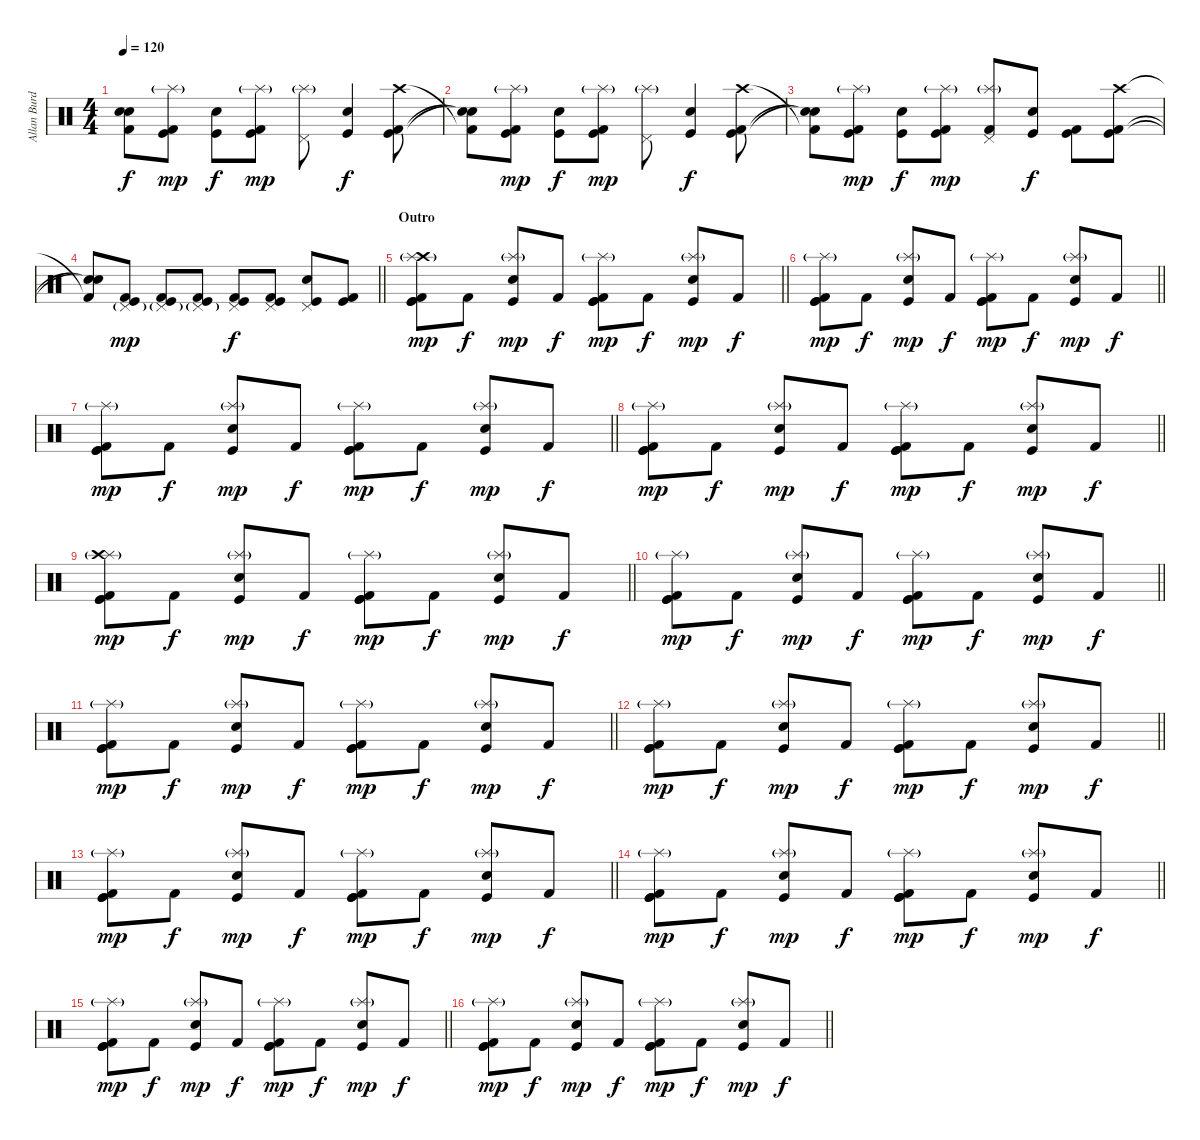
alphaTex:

\track ("Allan Burdeos(Drums)" "Allan Burd") {instrument percussion}
\staff {score}
\articulation defaults
\ts (4 4)
\tempo 120
\clef neutral
\ks c
("Kick (hit) 2"{t} "Snare (hit)"{t} "Snare (hit)"{t}).8{dy f} ("Kick (hit) 2" "Kick (hit)" "Splash (hit)"{g}).8{dy mp} ("Kick (hit)" "Electric Snare (hit)").8{dy f} ("Kick (hit) 2" "Kick (hit)" "Splash (hit)"{g}).8{dy mp} ("Pedal Hi-Hat (hit)" "Splash (hit)"{g}).8 ("Kick (hit)" "Electric Snare (hit)").4{dy f} ("Crash high (hit)" "Kick (hit) 2" "Kick (hit)").8 |
("Kick (hit) 2"{t} "Snare (hit)"{t} "Snare (hit)"{t}).8 ("Kick (hit) 2" "Kick (hit)" "Splash (hit)"{g}).8{dy mp} ("Kick (hit)" "Electric Snare (hit)").8{dy f} ("Kick (hit) 2" "Kick (hit)" "Splash (hit)"{g}).8{dy mp} ("Pedal Hi-Hat (hit)" "Splash (hit)"{g}).8 ("Kick (hit)" "Electric Snare (hit)").4{dy f} ("Crash high (hit)" "Kick (hit) 2" "Kick (hit)").8 |
("Kick (hit) 2"{t} "Snare (hit)"{t} "Snare (hit)"{t}).8 ("Kick (hit) 2" "Kick (hit)" "Splash (hit)"{g}).8{dy mp} ("Kick (hit)" "Electric Snare (hit)").8{dy f} ("Kick (hit) 2" "Kick (hit)" "Splash (hit)"{g}).8{dy mp} ("Pedal Hi-Hat (hit)" "Kick (hit) 2" "Splash (hit)"{g}).8 ("Kick (hit)" "Electric Snare (hit)").8{dy f} ("Kick (hit) 2" "Kick (hit)").8 ("Crash high (hit)" "Kick (hit) 2" "Kick (hit)").8 |
\barLineRight lightlight
("Kick (hit) 2"{t} "Snare (hit)"{t} "Snare (hit)"{t}).8 ("Kick (hit) 2" "Kick (hit)" "Pedal Hi-Hat (hit)"{g}).8{dy mp} ("Kick (hit) 2" "Kick (hit)" "Pedal Hi-Hat (hit)"{g}).8 ("Kick (hit) 2" "Kick (hit)" "Pedal Hi-Hat (hit)"{g}).8 ("Kick (hit) 2" "Kick (hit)" "Pedal Hi-Hat (hit)").8{dy f} ("Kick (hit) 2" "Kick (hit)" "Pedal Hi-Hat (hit)").8 ("Electric Snare (hit)" "Kick (hit)" "Pedal Hi-Hat (hit)").8 ("Kick (hit) 2" "Kick (hit)").8 |
\section ("" "Outro")
\barLineRight lightlight
("Kick (hit)" "Kick (hit)" "Kick (hit) 2" "Crash high (hit)" "Splash (hit)"{g}).8{dy mp} "Kick (hit) 2".8{dy f} ("Kick (hit)" "Electric Snare (hit)" "Splash (hit)"{g}).8{dy mp} "Kick (hit) 2".8{dy f} ("Kick (hit)" "Kick (hit)" "Kick (hit) 2" "Splash (hit)"{g}).8{dy mp} "Kick (hit) 2".8{dy f} ("Kick (hit)" "Electric Snare (hit)" "Splash (hit)"{g}).8{dy mp} "Kick (hit) 2".8{dy f} |
\barLineRight lightlight
("Kick (hit)" "Kick (hit)" "Kick (hit) 2" "Splash (hit)"{g}).8{dy mp} "Kick (hit) 2".8{dy f} ("Kick (hit)" "Electric Snare (hit)" "Splash (hit)"{g}).8{dy mp} "Kick (hit) 2".8{dy f} ("Kick (hit)" "Kick (hit)" "Kick (hit) 2" "Splash (hit)"{g}).8{dy mp} "Kick (hit) 2".8{dy f} ("Kick (hit)" "Electric Snare (hit)" "Splash (hit)"{g}).8{dy mp} "Kick (hit) 2".8{dy f} |
\barLineRight lightlight
("Kick (hit)" "Kick (hit)" "Kick (hit) 2" "Splash (hit)"{g}).8{dy mp} "Kick (hit) 2".8{dy f} ("Kick (hit)" "Electric Snare (hit)" "Splash (hit)"{g}).8{dy mp} "Kick (hit) 2".8{dy f} ("Kick (hit)" "Kick (hit)" "Kick (hit) 2" "Splash (hit)"{g}).8{dy mp} "Kick (hit) 2".8{dy f} ("Kick (hit)" "Electric Snare (hit)" "Splash (hit)"{g}).8{dy mp} "Kick (hit) 2".8{dy f} |
\barLineRight lightlight
("Kick (hit)" "Kick (hit)" "Kick (hit) 2" "Splash (hit)"{g}).8{dy mp} "Kick (hit) 2".8{dy f} ("Kick (hit)" "Electric Snare (hit)" "Splash (hit)"{g}).8{dy mp} "Kick (hit) 2".8{dy f} ("Kick (hit)" "Kick (hit)" "Kick (hit) 2" "Splash (hit)"{g}).8{dy mp} "Kick (hit) 2".8{dy f} ("Kick (hit)" "Electric Snare (hit)" "Splash (hit)"{g}).8{dy mp} "Kick (hit) 2".8{dy f} |
\barLineRight lightlight
("Kick (hit)" "Kick (hit)" "Kick (hit) 2" "Splash (hit)"{g} "Crash high (hit)"{g}).8{dy mp} "Kick (hit) 2".8{dy f} ("Kick (hit)" "Electric Snare (hit)" "Splash (hit)"{g}).8{dy mp} "Kick (hit) 2".8{dy f} ("Kick (hit)" "Kick (hit)" "Kick (hit) 2" "Splash (hit)"{g}).8{dy mp} "Kick (hit) 2".8{dy f} ("Kick (hit)" "Electric Snare (hit)" "Splash (hit)"{g}).8{dy mp} "Kick (hit) 2".8{dy f} |
\barLineRight lightlight
("Kick (hit)" "Kick (hit)" "Kick (hit) 2" "Splash (hit)"{g}).8{dy mp} "Kick (hit) 2".8{dy f} ("Kick (hit)" "Electric Snare (hit)" "Splash (hit)"{g}).8{dy mp} "Kick (hit) 2".8{dy f} ("Kick (hit)" "Kick (hit)" "Kick (hit) 2" "Splash (hit)"{g}).8{dy mp} "Kick (hit) 2".8{dy f} ("Kick (hit)" "Electric Snare (hit)" "Splash (hit)"{g}).8{dy mp} "Kick (hit) 2".8{dy f} |
\barLineRight lightlight
("Kick (hit)" "Kick (hit)" "Kick (hit) 2" "Splash (hit)"{g}).8{dy mp} "Kick (hit) 2".8{dy f} ("Kick (hit)" "Electric Snare (hit)" "Splash (hit)"{g}).8{dy mp} "Kick (hit) 2".8{dy f} ("Kick (hit)" "Kick (hit)" "Kick (hit) 2" "Splash (hit)"{g}).8{dy mp} "Kick (hit) 2".8{dy f} ("Kick (hit)" "Electric Snare (hit)" "Splash (hit)"{g}).8{dy mp} "Kick (hit) 2".8{dy f} |
\barLineRight lightlight
("Kick (hit)" "Kick (hit)" "Kick (hit) 2" "Splash (hit)"{g}).8{dy mp} "Kick (hit) 2".8{dy f} ("Kick (hit)" "Electric Snare (hit)" "Splash (hit)"{g}).8{dy mp} "Kick (hit) 2".8{dy f} ("Kick (hit)" "Kick (hit)" "Kick (hit) 2" "Splash (hit)"{g}).8{dy mp} "Kick (hit) 2".8{dy f} ("Kick (hit)" "Electric Snare (hit)" "Splash (hit)"{g}).8{dy mp} "Kick (hit) 2".8{dy f} |
\barLineRight lightlight
("Kick (hit)" "Kick (hit)" "Kick (hit) 2" "Splash (hit)"{g}).8{dy mp} "Kick (hit) 2".8{dy f} ("Kick (hit)" "Electric Snare (hit)" "Splash (hit)"{g}).8{dy mp} "Kick (hit) 2".8{dy f} ("Kick (hit)" "Kick (hit)" "Kick (hit) 2" "Splash (hit)"{g}).8{dy mp} "Kick (hit) 2".8{dy f} ("Kick (hit)" "Electric Snare (hit)" "Splash (hit)"{g}).8{dy mp} "Kick (hit) 2".8{dy f} |
\barLineRight lightlight
("Kick (hit)" "Kick (hit)" "Kick (hit) 2" "Splash (hit)"{g}).8{dy mp} "Kick (hit) 2".8{dy f} ("Kick (hit)" "Electric Snare (hit)" "Splash (hit)"{g}).8{dy mp} "Kick (hit) 2".8{dy f} ("Kick (hit)" "Kick (hit)" "Kick (hit) 2" "Splash (hit)"{g}).8{dy mp} "Kick (hit) 2".8{dy f} ("Kick (hit)" "Electric Snare (hit)" "Splash (hit)"{g}).8{dy mp} "Kick (hit) 2".8{dy f} |
\barLineRight lightlight
("Kick (hit)" "Kick (hit)" "Kick (hit) 2" "Splash (hit)"{g}).8{dy mp} "Kick (hit) 2".8{dy f} ("Kick (hit)" "Electric Snare (hit)" "Splash (hit)"{g}).8{dy mp} "Kick (hit) 2".8{dy f} ("Kick (hit)" "Kick (hit)" "Kick (hit) 2" "Splash (hit)"{g}).8{dy mp} "Kick (hit) 2".8{dy f} ("Kick (hit)" "Electric Snare (hit)" "Splash (hit)"{g}).8{dy mp} "Kick (hit) 2".8{dy f} |
\barLineRight lightlight
("Kick (hit)" "Kick (hit)" "Kick (hit) 2" "Splash (hit)"{g}).8{dy mp} "Kick (hit) 2".8{dy f} ("Kick (hit)" "Electric Snare (hit)" "Splash (hit)"{g}).8{dy mp} "Kick (hit) 2".8{dy f} ("Kick (hit)" "Kick (hit)" "Kick (hit) 2" "Splash (hit)"{g}).8{dy mp} "Kick (hit) 2".8{dy f} ("Kick (hit)" "Electric Snare (hit)" "Splash (hit)"{g}).8{dy mp} "Kick (hit) 2".8{dy f}
